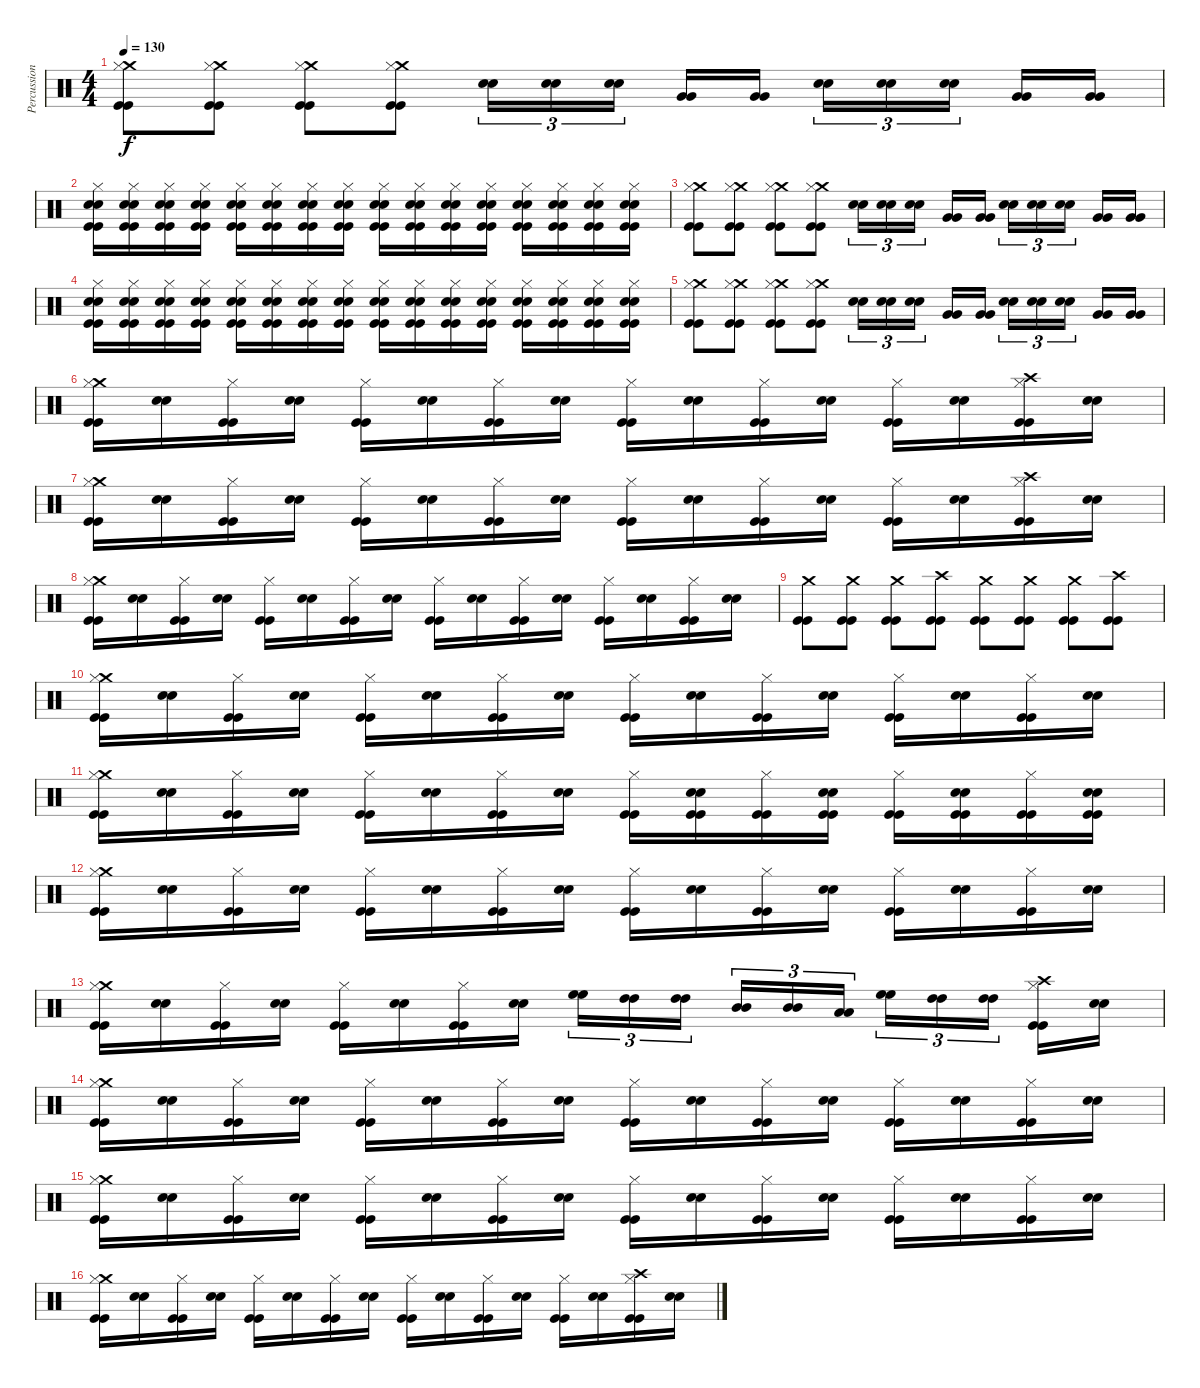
\track ("Percussion" "Percussion") {instrument percussion}
\staff {score}
\articulation defaults
\ts (4 4)
\tempo 130
\clef neutral
\ks c
("Crash medium (hit)" "Hi-Hat (closed)" "Kick (hit)" "Kick (hit)").8{dy f} ("Crash medium (hit)" "Hi-Hat (closed)" "Kick (hit)" "Kick (hit)").8 ("Crash medium (hit)" "Hi-Hat (closed)" "Kick (hit)" "Kick (hit)").8 ("Crash medium (hit)" "Hi-Hat (closed)" "Kick (hit)" "Kick (hit)").8 ("Snare (hit) 2" "Snare (hit) 2").16{tu (3 2)} ("Snare (hit) 2" "Snare (hit) 2").16{tu (3 2)} ("Snare (hit) 2" "Snare (hit) 2").16{tu (3 2)} ("Very Low Tom (hit)" "Very Low Tom (hit)").16 ("Very Low Tom (hit)" "Very Low Tom (hit)").16 ("Snare (hit) 2" "Snare (hit) 2").16{tu (3 2)} ("Snare (hit) 2" "Snare (hit) 2").16{tu (3 2)} ("Snare (hit) 2" "Snare (hit) 2").16{tu (3 2)} ("Very Low Tom (hit)" "Very Low Tom (hit)").16 ("Very Low Tom (hit)" "Very Low Tom (hit)").16 |
("Snare (hit) 2" "Snare (hit) 2" "Hi-Hat (closed)" "Kick (hit)" "Kick (hit)").16 ("Snare (hit) 2" "Snare (hit) 2" "Hi-Hat (closed)" "Kick (hit)" "Kick (hit)").16 ("Snare (hit) 2" "Snare (hit) 2" "Hi-Hat (closed)" "Kick (hit)" "Kick (hit)").16 ("Snare (hit) 2" "Snare (hit) 2" "Hi-Hat (closed)" "Kick (hit)" "Kick (hit)").16 ("Snare (hit) 2" "Snare (hit) 2" "Hi-Hat (closed)" "Kick (hit)" "Kick (hit)").16 ("Snare (hit) 2" "Snare (hit) 2" "Hi-Hat (closed)" "Kick (hit)" "Kick (hit)").16 ("Snare (hit) 2" "Snare (hit) 2" "Hi-Hat (closed)" "Kick (hit)" "Kick (hit)").16 ("Snare (hit) 2" "Snare (hit) 2" "Hi-Hat (closed)" "Kick (hit)" "Kick (hit)").16 ("Snare (hit) 2" "Snare (hit) 2" "Hi-Hat (closed)" "Kick (hit)" "Kick (hit)").16 ("Snare (hit) 2" "Snare (hit) 2" "Hi-Hat (closed)" "Kick (hit)" "Kick (hit)").16 ("Snare (hit) 2" "Snare (hit) 2" "Hi-Hat (closed)" "Kick (hit)" "Kick (hit)").16 ("Snare (hit) 2" "Snare (hit) 2" "Hi-Hat (closed)" "Kick (hit)" "Kick (hit)").16 ("Snare (hit) 2" "Snare (hit) 2" "Hi-Hat (closed)" "Kick (hit)" "Kick (hit)").16 ("Snare (hit) 2" "Snare (hit) 2" "Hi-Hat (closed)" "Kick (hit)" "Kick (hit)").16 ("Snare (hit) 2" "Snare (hit) 2" "Hi-Hat (closed)" "Kick (hit)" "Kick (hit)").16 ("Snare (hit) 2" "Snare (hit) 2" "Hi-Hat (closed)" "Kick (hit)" "Kick (hit)").16 |
("Crash medium (hit)" "Hi-Hat (closed)" "Kick (hit)" "Kick (hit)").8 ("Crash medium (hit)" "Hi-Hat (closed)" "Kick (hit)" "Kick (hit)").8 ("Crash medium (hit)" "Hi-Hat (closed)" "Kick (hit)" "Kick (hit)").8 ("Crash medium (hit)" "Hi-Hat (closed)" "Kick (hit)" "Kick (hit)").8 ("Snare (hit) 2" "Snare (hit) 2").16{tu (3 2)} ("Snare (hit) 2" "Snare (hit) 2").16{tu (3 2)} ("Snare (hit) 2" "Snare (hit) 2").16{tu (3 2)} ("Very Low Tom (hit)" "Very Low Tom (hit)").16 ("Very Low Tom (hit)" "Very Low Tom (hit)").16 ("Snare (hit) 2" "Snare (hit) 2").16{tu (3 2)} ("Snare (hit) 2" "Snare (hit) 2").16{tu (3 2)} ("Snare (hit) 2" "Snare (hit) 2").16{tu (3 2)} ("Very Low Tom (hit)" "Very Low Tom (hit)").16 ("Very Low Tom (hit)" "Very Low Tom (hit)").16 |
("Snare (hit) 2" "Snare (hit) 2" "Hi-Hat (closed)" "Kick (hit)" "Kick (hit)").16 ("Snare (hit) 2" "Snare (hit) 2" "Hi-Hat (closed)" "Kick (hit)" "Kick (hit)").16 ("Snare (hit) 2" "Snare (hit) 2" "Hi-Hat (closed)" "Kick (hit)" "Kick (hit)").16 ("Snare (hit) 2" "Snare (hit) 2" "Hi-Hat (closed)" "Kick (hit)" "Kick (hit)").16 ("Snare (hit) 2" "Snare (hit) 2" "Hi-Hat (closed)" "Kick (hit)" "Kick (hit)").16 ("Snare (hit) 2" "Snare (hit) 2" "Hi-Hat (closed)" "Kick (hit)" "Kick (hit)").16 ("Snare (hit) 2" "Snare (hit) 2" "Hi-Hat (closed)" "Kick (hit)" "Kick (hit)").16 ("Snare (hit) 2" "Snare (hit) 2" "Hi-Hat (closed)" "Kick (hit)" "Kick (hit)").16 ("Snare (hit) 2" "Snare (hit) 2" "Hi-Hat (closed)" "Kick (hit)" "Kick (hit)").16 ("Snare (hit) 2" "Snare (hit) 2" "Hi-Hat (closed)" "Kick (hit)" "Kick (hit)").16 ("Snare (hit) 2" "Snare (hit) 2" "Hi-Hat (closed)" "Kick (hit)" "Kick (hit)").16 ("Snare (hit) 2" "Snare (hit) 2" "Hi-Hat (closed)" "Kick (hit)" "Kick (hit)").16 ("Snare (hit) 2" "Snare (hit) 2" "Hi-Hat (closed)" "Kick (hit)" "Kick (hit)").16 ("Snare (hit) 2" "Snare (hit) 2" "Hi-Hat (closed)" "Kick (hit)" "Kick (hit)").16 ("Snare (hit) 2" "Snare (hit) 2" "Hi-Hat (closed)" "Kick (hit)" "Kick (hit)").16 ("Snare (hit) 2" "Snare (hit) 2" "Hi-Hat (closed)" "Kick (hit)" "Kick (hit)").16 |
("Crash medium (hit)" "Hi-Hat (closed)" "Kick (hit)" "Kick (hit)").8 ("Crash medium (hit)" "Hi-Hat (closed)" "Kick (hit)" "Kick (hit)").8 ("Crash medium (hit)" "Hi-Hat (closed)" "Kick (hit)" "Kick (hit)").8 ("Crash medium (hit)" "Hi-Hat (closed)" "Kick (hit)" "Kick (hit)").8 ("Snare (hit) 2" "Snare (hit) 2").16{tu (3 2)} ("Snare (hit) 2" "Snare (hit) 2").16{tu (3 2)} ("Snare (hit) 2" "Snare (hit) 2").16{tu (3 2)} ("Very Low Tom (hit)" "Very Low Tom (hit)").16 ("Very Low Tom (hit)" "Very Low Tom (hit)").16 ("Snare (hit) 2" "Snare (hit) 2").16{tu (3 2)} ("Snare (hit) 2" "Snare (hit) 2").16{tu (3 2)} ("Snare (hit) 2" "Snare (hit) 2").16{tu (3 2)} ("Very Low Tom (hit)" "Very Low Tom (hit)").16 ("Very Low Tom (hit)" "Very Low Tom (hit)").16 |
("Crash medium (hit)" "Hi-Hat (closed)" "Kick (hit)" "Kick (hit)").16 ("Snare (hit) 2" "Snare (hit) 2").16 ("Hi-Hat (closed)" "Kick (hit)" "Kick (hit)").16 ("Snare (hit) 2" "Snare (hit) 2").16 ("Hi-Hat (closed)" "Kick (hit)" "Kick (hit)").16 ("Snare (hit) 2" "Snare (hit) 2").16 ("Hi-Hat (closed)" "Kick (hit)" "Kick (hit)").16 ("Snare (hit) 2" "Snare (hit) 2").16 ("Hi-Hat (closed)" "Kick (hit)" "Kick (hit)").16 ("Snare (hit) 2" "Snare (hit) 2").16 ("Hi-Hat (closed)" "Kick (hit)" "Kick (hit)").16 ("Snare (hit) 2" "Snare (hit) 2").16 ("Hi-Hat (closed)" "Kick (hit)" "Kick (hit)").16 ("Snare (hit) 2" "Snare (hit) 2").16 ("Crash high (hit)" "Hi-Hat (closed)" "Kick (hit)" "Kick (hit)").16 ("Snare (hit) 2" "Snare (hit) 2").16 |
("Crash medium (hit)" "Hi-Hat (closed)" "Kick (hit)" "Kick (hit)").16 ("Snare (hit) 2" "Snare (hit) 2").16 ("Hi-Hat (closed)" "Kick (hit)" "Kick (hit)").16 ("Snare (hit) 2" "Snare (hit) 2").16 ("Hi-Hat (closed)" "Kick (hit)" "Kick (hit)").16 ("Snare (hit) 2" "Snare (hit) 2").16 ("Hi-Hat (closed)" "Kick (hit)" "Kick (hit)").16 ("Snare (hit) 2" "Snare (hit) 2").16 ("Hi-Hat (closed)" "Kick (hit)" "Kick (hit)").16 ("Snare (hit) 2" "Snare (hit) 2").16 ("Hi-Hat (closed)" "Kick (hit)" "Kick (hit)").16 ("Snare (hit) 2" "Snare (hit) 2").16 ("Hi-Hat (closed)" "Kick (hit)" "Kick (hit)").16 ("Snare (hit) 2" "Snare (hit) 2").16 ("Crash high (hit)" "Hi-Hat (closed)" "Kick (hit)" "Kick (hit)").16 ("Snare (hit) 2" "Snare (hit) 2").16 |
("Crash medium (hit)" "Hi-Hat (closed)" "Kick (hit)" "Kick (hit)").16 ("Snare (hit) 2" "Snare (hit) 2").16 ("Hi-Hat (closed)" "Kick (hit)" "Kick (hit)").16 ("Snare (hit) 2" "Snare (hit) 2").16 ("Hi-Hat (closed)" "Kick (hit)" "Kick (hit)").16 ("Snare (hit) 2" "Snare (hit) 2").16 ("Hi-Hat (closed)" "Kick (hit)" "Kick (hit)").16 ("Snare (hit) 2" "Snare (hit) 2").16 ("Hi-Hat (closed)" "Kick (hit)" "Kick (hit)").16 ("Snare (hit) 2" "Snare (hit) 2").16 ("Hi-Hat (closed)" "Kick (hit)" "Kick (hit)").16 ("Snare (hit) 2" "Snare (hit) 2").16 ("Hi-Hat (closed)" "Kick (hit)" "Kick (hit)").16 ("Snare (hit) 2" "Snare (hit) 2").16 ("Hi-Hat (closed)" "Kick (hit)" "Kick (hit)").16 ("Snare (hit) 2" "Snare (hit) 2").16 |
("Crash medium (hit)" "Kick (hit)" "Kick (hit)").8 ("Crash medium (hit)" "Kick (hit)" "Kick (hit)").8 ("Crash medium (hit)" "Kick (hit)" "Kick (hit)").8 ("Crash high (hit)" "Kick (hit)" "Kick (hit)").8 ("Crash medium (hit)" "Kick (hit)" "Kick (hit)").8 ("Crash medium (hit)" "Kick (hit)" "Kick (hit)").8 ("Crash medium (hit)" "Kick (hit)" "Kick (hit)").8 ("Crash high (hit)" "Kick (hit)" "Kick (hit)").8 |
("Crash medium (hit)" "Hi-Hat (closed)" "Kick (hit)" "Kick (hit)").16 ("Snare (hit) 2" "Snare (hit) 2").16 ("Hi-Hat (closed)" "Kick (hit)" "Kick (hit)").16 ("Snare (hit) 2" "Snare (hit) 2").16 ("Hi-Hat (closed)" "Kick (hit)" "Kick (hit)").16 ("Snare (hit) 2" "Snare (hit) 2").16 ("Hi-Hat (closed)" "Kick (hit)" "Kick (hit)").16 ("Snare (hit) 2" "Snare (hit) 2").16 ("Hi-Hat (closed)" "Kick (hit)" "Kick (hit)").16 ("Snare (hit) 2" "Snare (hit) 2").16 ("Hi-Hat (closed)" "Kick (hit)" "Kick (hit)").16 ("Snare (hit) 2" "Snare (hit) 2").16 ("Hi-Hat (closed)" "Kick (hit)" "Kick (hit)").16 ("Snare (hit) 2" "Snare (hit) 2").16 ("Hi-Hat (closed)" "Kick (hit)" "Kick (hit)").16 ("Snare (hit) 2" "Snare (hit) 2").16 |
("Crash medium (hit)" "Hi-Hat (closed)" "Kick (hit)" "Kick (hit)").16 ("Snare (hit) 2" "Snare (hit) 2").16 ("Hi-Hat (closed)" "Kick (hit)" "Kick (hit)").16 ("Snare (hit) 2" "Snare (hit) 2").16 ("Hi-Hat (closed)" "Kick (hit)" "Kick (hit)").16 ("Snare (hit) 2" "Snare (hit) 2").16 ("Hi-Hat (closed)" "Kick (hit)" "Kick (hit)").16 ("Snare (hit) 2" "Snare (hit) 2").16 ("Hi-Hat (closed)" "Kick (hit)" "Kick (hit)").16 ("Snare (hit) 2" "Snare (hit) 2" "Kick (hit)" "Kick (hit)").16 ("Hi-Hat (closed)" "Kick (hit)" "Kick (hit)").16 ("Snare (hit) 2" "Snare (hit) 2" "Kick (hit)" "Kick (hit)").16 ("Hi-Hat (closed)" "Kick (hit)" "Kick (hit)").16 ("Snare (hit) 2" "Snare (hit) 2" "Kick (hit)" "Kick (hit)").16 ("Hi-Hat (closed)" "Kick (hit)" "Kick (hit)").16 ("Snare (hit) 2" "Snare (hit) 2" "Kick (hit)" "Kick (hit)").16 |
("Crash medium (hit)" "Hi-Hat (closed)" "Kick (hit)" "Kick (hit)").16 ("Snare (hit) 2" "Snare (hit) 2").16 ("Hi-Hat (closed)" "Kick (hit)" "Kick (hit)").16 ("Snare (hit) 2" "Snare (hit) 2").16 ("Hi-Hat (closed)" "Kick (hit)" "Kick (hit)").16 ("Snare (hit) 2" "Snare (hit) 2").16 ("Hi-Hat (closed)" "Kick (hit)" "Kick (hit)").16 ("Snare (hit) 2" "Snare (hit) 2").16 ("Hi-Hat (closed)" "Kick (hit)" "Kick (hit)").16 ("Snare (hit) 2" "Snare (hit) 2").16 ("Hi-Hat (closed)" "Kick (hit)" "Kick (hit)").16 ("Snare (hit) 2" "Snare (hit) 2").16 ("Hi-Hat (closed)" "Kick (hit)" "Kick (hit)").16 ("Snare (hit) 2" "Snare (hit) 2").16 ("Hi-Hat (closed)" "Kick (hit)" "Kick (hit)").16 ("Snare (hit) 2" "Snare (hit) 2").16 |
("Crash medium (hit)" "Hi-Hat (closed)" "Kick (hit)" "Kick (hit)").16 ("Snare (hit) 2" "Snare (hit) 2").16 ("Hi-Hat (closed)" "Kick (hit)" "Kick (hit)").16 ("Snare (hit) 2" "Snare (hit) 2").16 ("Hi-Hat (closed)" "Kick (hit)" "Kick (hit)").16 ("Snare (hit) 2" "Snare (hit) 2").16 ("Hi-Hat (closed)" "Kick (hit)" "Kick (hit)").16 ("Snare (hit) 2" "Snare (hit) 2").16 ("High Floor Tom (hit)" "High Floor Tom (hit)").16{tu (3 2)} ("High Tom (hit)" "High Tom (hit)").16{tu (3 2)} ("High Tom (hit)" "High Tom (hit)").16{tu (3 2)} ("Mid Tom (hit)" "Mid Tom (hit)").16{tu (3 2)} ("Mid Tom (hit)" "Mid Tom (hit)").16{tu (3 2)} ("Low Tom (hit)" "Low Tom (hit)").16{tu (3 2)} ("High Floor Tom (hit)" "High Floor Tom (hit)").16{tu (3 2)} ("High Tom (hit)" "High Tom (hit)").16{tu (3 2)} ("High Tom (hit)" "High Tom (hit)").16{tu (3 2)} ("Crash high (hit)" "Hi-Hat (closed)" "Kick (hit)" "Kick (hit)").16 ("Snare (hit) 2" "Snare (hit) 2").16 |
("Crash medium (hit)" "Hi-Hat (closed)" "Kick (hit)" "Kick (hit)").16 ("Snare (hit) 2" "Snare (hit) 2").16 ("Hi-Hat (closed)" "Kick (hit)" "Kick (hit)").16 ("Snare (hit) 2" "Snare (hit) 2").16 ("Hi-Hat (closed)" "Kick (hit)" "Kick (hit)").16 ("Snare (hit) 2" "Snare (hit) 2").16 ("Hi-Hat (closed)" "Kick (hit)" "Kick (hit)").16 ("Snare (hit) 2" "Snare (hit) 2").16 ("Hi-Hat (closed)" "Kick (hit)" "Kick (hit)").16 ("Snare (hit) 2" "Snare (hit) 2").16 ("Hi-Hat (closed)" "Kick (hit)" "Kick (hit)").16 ("Snare (hit) 2" "Snare (hit) 2").16 ("Hi-Hat (closed)" "Kick (hit)" "Kick (hit)").16 ("Snare (hit) 2" "Snare (hit) 2").16 ("Hi-Hat (closed)" "Kick (hit)" "Kick (hit)").16 ("Snare (hit) 2" "Snare (hit) 2").16 |
("Crash medium (hit)" "Hi-Hat (closed)" "Kick (hit)" "Kick (hit)").16 ("Snare (hit) 2" "Snare (hit) 2").16 ("Hi-Hat (closed)" "Kick (hit)" "Kick (hit)").16 ("Snare (hit) 2" "Snare (hit) 2").16 ("Hi-Hat (closed)" "Kick (hit)" "Kick (hit)").16 ("Snare (hit) 2" "Snare (hit) 2").16 ("Hi-Hat (closed)" "Kick (hit)" "Kick (hit)").16 ("Snare (hit) 2" "Snare (hit) 2").16 ("Hi-Hat (closed)" "Kick (hit)" "Kick (hit)").16 ("Snare (hit) 2" "Snare (hit) 2").16 ("Hi-Hat (closed)" "Kick (hit)" "Kick (hit)").16 ("Snare (hit) 2" "Snare (hit) 2").16 ("Hi-Hat (closed)" "Kick (hit)" "Kick (hit)").16 ("Snare (hit) 2" "Snare (hit) 2").16 ("Hi-Hat (closed)" "Kick (hit)" "Kick (hit)").16 ("Snare (hit) 2" "Snare (hit) 2").16 |
("Crash medium (hit)" "Hi-Hat (closed)" "Kick (hit)" "Kick (hit)").16 ("Snare (hit) 2" "Snare (hit) 2").16 ("Hi-Hat (closed)" "Kick (hit)" "Kick (hit)").16 ("Snare (hit) 2" "Snare (hit) 2").16 ("Hi-Hat (closed)" "Kick (hit)" "Kick (hit)").16 ("Snare (hit) 2" "Snare (hit) 2").16 ("Hi-Hat (closed)" "Kick (hit)" "Kick (hit)").16 ("Snare (hit) 2" "Snare (hit) 2").16 ("Hi-Hat (closed)" "Kick (hit)" "Kick (hit)").16 ("Snare (hit) 2" "Snare (hit) 2").16 ("Hi-Hat (closed)" "Kick (hit)" "Kick (hit)").16 ("Snare (hit) 2" "Snare (hit) 2").16 ("Hi-Hat (closed)" "Kick (hit)" "Kick (hit)").16 ("Snare (hit) 2" "Snare (hit) 2").16 ("Crash high (hit)" "Hi-Hat (closed)" "Kick (hit)" "Kick (hit)").16 ("Snare (hit) 2" "Snare (hit) 2").16
